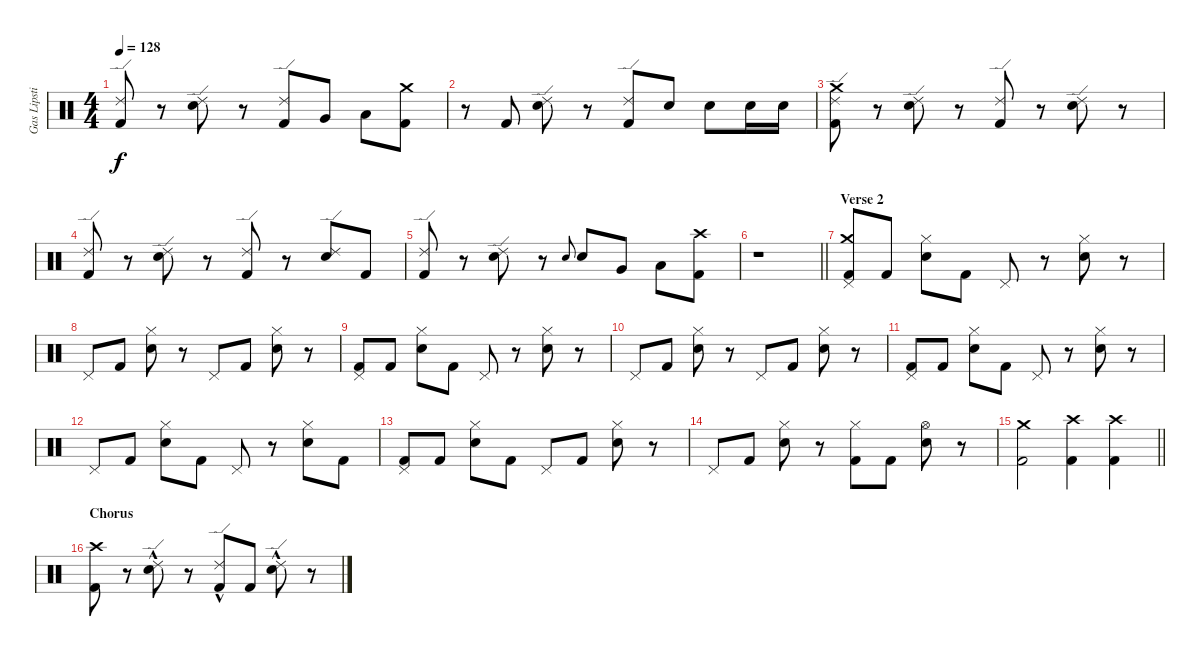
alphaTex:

\track ("Gas Lipstick (Drums)" "Gas Lipsti") {instrument percussion}
\staff {score}
\articulation defaults
\ts (4 4)
\tempo 128
\clef neutral
\ks c
("Ride (edge) 2" "Kick (hit) 2").8{dy f} r.8 ("Ride (edge) 2" "Snare (hit) 2").8 r.8 ("Ride (edge) 2" "Kick (hit) 2").8 "Very Low Tom (hit)".8 "Low Floor Tom (hit)".8 ("Crash medium (hit)" "Kick (hit) 2").8 |
r.8 "Kick (hit) 2".8 ("Ride (edge) 2" "Snare (hit) 2").8 r.8 ("Ride (edge) 2" "Kick (hit) 2").8 "Snare (hit) 2".8 "Snare (hit) 2".8 "Snare (hit) 2".16 "Snare (hit) 2".16 |
("Crash medium (hit)" "Ride (edge) 2" "Kick (hit) 2").8 r.8 ("Ride (edge) 2" "Snare (hit) 2").8 r.8 ("Ride (edge) 2" "Kick (hit) 2").8 r.8 ("Ride (edge) 2" "Snare (hit) 2").8 r.8 |
("Ride (edge) 2" "Kick (hit) 2").8 r.8 ("Ride (edge) 2" "Snare (hit) 2").8 r.8 ("Ride (edge) 2" "Kick (hit) 2").8 r.8 ("Ride (edge) 2" "Snare (hit) 2").8 "Kick (hit) 2".8 |
("Ride (edge) 2" "Kick (hit) 2").8 r.8 ("Ride (edge) 2" "Snare (hit) 2").8 r.8 "Snare (hit) 2".8{gr onbeat} "Snare (hit) 2".8 "Very Low Tom (hit)".8 "Low Floor Tom (hit)".8 ("Crash high (hit)" "Kick (hit) 2").8 |
\barLineRight lightlight
r.1 |
\section ("" "Verse 2")
("Crash medium (hit)" "Pedal Hi-Hat (hit)" "Kick (hit) 2").8 "Kick (hit) 2".8 ("Hi-Hat (closed)" "Snare (hit) 2").8 "Kick (hit) 2".8 "Pedal Hi-Hat (hit)".8 r.8 ("Hi-Hat (closed)" "Snare (hit) 2").8 r.8 |
"Pedal Hi-Hat (hit)".8 "Kick (hit) 2".8 ("Hi-Hat (closed)" "Snare (hit) 2").8 r.8 "Pedal Hi-Hat (hit)".8 "Kick (hit) 2".8 ("Hi-Hat (closed)" "Snare (hit) 2").8 r.8 |
("Pedal Hi-Hat (hit)" "Kick (hit) 2").8 "Kick (hit) 2".8 ("Hi-Hat (closed)" "Snare (hit) 2").8 "Kick (hit) 2".8 "Pedal Hi-Hat (hit)".8 r.8 ("Hi-Hat (closed)" "Snare (hit) 2").8 r.8 |
"Pedal Hi-Hat (hit)".8 "Kick (hit) 2".8 ("Hi-Hat (closed)" "Snare (hit) 2").8 r.8 "Pedal Hi-Hat (hit)".8 "Kick (hit) 2".8 ("Hi-Hat (closed)" "Snare (hit) 2").8 r.8 |
("Pedal Hi-Hat (hit)" "Kick (hit) 2").8 "Kick (hit) 2".8 ("Hi-Hat (closed)" "Snare (hit) 2").8 "Kick (hit) 2".8 "Pedal Hi-Hat (hit)".8 r.8 ("Hi-Hat (closed)" "Snare (hit) 2").8 r.8 |
"Pedal Hi-Hat (hit)".8 "Kick (hit) 2".8 ("Hi-Hat (closed)" "Snare (hit) 2").8 "Kick (hit) 2".8 "Pedal Hi-Hat (hit)".8 r.8 ("Hi-Hat (closed)" "Snare (hit) 2").8 "Kick (hit) 2".8 |
("Pedal Hi-Hat (hit)" "Kick (hit) 2").8 "Kick (hit) 2".8 ("Hi-Hat (closed)" "Snare (hit) 2").8 "Kick (hit) 2".8 "Pedal Hi-Hat (hit)".8 "Kick (hit) 2".8 ("Hi-Hat (closed)" "Snare (hit) 2").8 r.8 |
"Pedal Hi-Hat (hit)".8 "Kick (hit) 2".8 ("Hi-Hat (closed)" "Snare (hit) 2").8 r.8 ("Hi-Hat (closed)" "Kick (hit) 2").8 "Kick (hit) 2".8 ("Hi-Hat (open)" "Snare (hit) 2").8 r.8 |
\barLineRight lightlight
("Crash medium (hit)" "Kick (hit) 2").2 ("Crash high (hit)" "Kick (hit) 2").4 ("Crash high (hit)" "Kick (hit) 2").4 |
\section ("" "Chorus")
("Crash high (hit)" "Kick (hit) 2").8 r.8 ("Ride (edge) 2"{hac} "Snare (hit) 2").8 r.8 ("Ride (edge) 2"{hac} "Kick (hit) 2").8 "Kick (hit) 2".8 ("Ride (edge) 2"{hac} "Snare (hit) 2").8 r.8
